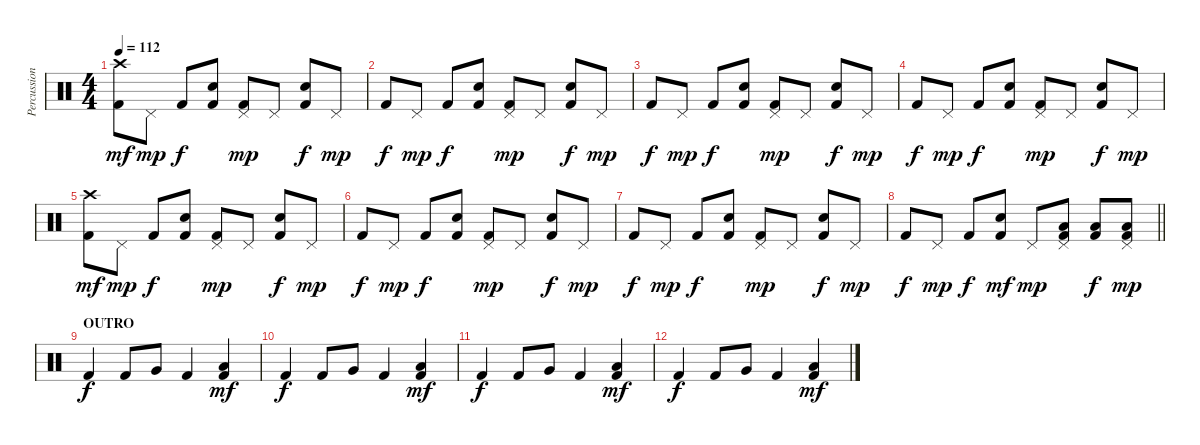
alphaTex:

\track ("Percussion" "Percussion") {instrument percussion}
\staff {score}
\articulation defaults
\ts (4 4)
\tempo 112
\clef neutral
\ks c
("Kick (hit) 2" "Crash high (hit)").8{dy mf} "Pedal Hi-Hat (hit)".8{dy mp} "Kick (hit) 2".8{dy f} ("Kick (hit) 2" "Snare (hit) 2").8 ("Kick (hit) 2" "Pedal Hi-Hat (hit)").8{dy mp} "Pedal Hi-Hat (hit)".8 ("Kick (hit) 2" "Snare (hit) 2").8{dy f} "Pedal Hi-Hat (hit)".8{dy mp} |
"Kick (hit) 2".8{dy f} "Pedal Hi-Hat (hit)".8{dy mp} "Kick (hit) 2".8{dy f} ("Kick (hit) 2" "Snare (hit) 2").8 ("Kick (hit) 2" "Pedal Hi-Hat (hit)").8{dy mp} "Pedal Hi-Hat (hit)".8 ("Kick (hit) 2" "Snare (hit) 2").8{dy f} "Pedal Hi-Hat (hit)".8{dy mp} |
"Kick (hit) 2".8{dy f} "Pedal Hi-Hat (hit)".8{dy mp} "Kick (hit) 2".8{dy f} ("Kick (hit) 2" "Snare (hit) 2").8 ("Kick (hit) 2" "Pedal Hi-Hat (hit)").8{dy mp} "Pedal Hi-Hat (hit)".8 ("Kick (hit) 2" "Snare (hit) 2").8{dy f} "Pedal Hi-Hat (hit)".8{dy mp} |
"Kick (hit) 2".8{dy f} "Pedal Hi-Hat (hit)".8{dy mp} "Kick (hit) 2".8{dy f} ("Kick (hit) 2" "Snare (hit) 2").8 ("Kick (hit) 2" "Pedal Hi-Hat (hit)").8{dy mp} "Pedal Hi-Hat (hit)".8 ("Kick (hit) 2" "Snare (hit) 2").8{dy f} "Pedal Hi-Hat (hit)".8{dy mp} |
("Kick (hit) 2" "Crash high (hit)").8{dy mf} "Pedal Hi-Hat (hit)".8{dy mp} "Kick (hit) 2".8{dy f} ("Kick (hit) 2" "Snare (hit) 2").8 ("Kick (hit) 2" "Pedal Hi-Hat (hit)").8{dy mp} "Pedal Hi-Hat (hit)".8 ("Kick (hit) 2" "Snare (hit) 2").8{dy f} "Pedal Hi-Hat (hit)".8{dy mp} |
"Kick (hit) 2".8{dy f} "Pedal Hi-Hat (hit)".8{dy mp} "Kick (hit) 2".8{dy f} ("Kick (hit) 2" "Snare (hit) 2").8 ("Kick (hit) 2" "Pedal Hi-Hat (hit)").8{dy mp} "Pedal Hi-Hat (hit)".8 ("Kick (hit) 2" "Snare (hit) 2").8{dy f} "Pedal Hi-Hat (hit)".8{dy mp} |
"Kick (hit) 2".8{dy f} "Pedal Hi-Hat (hit)".8{dy mp} "Kick (hit) 2".8{dy f} ("Kick (hit) 2" "Snare (hit) 2").8 ("Kick (hit) 2" "Pedal Hi-Hat (hit)").8{dy mp} "Pedal Hi-Hat (hit)".8 ("Kick (hit) 2" "Snare (hit) 2").8{dy f} "Pedal Hi-Hat (hit)".8{dy mp} |
\barLineRight lightlight "Kick (hit) 2".8{dy f} "Pedal Hi-Hat (hit)".8{dy mp} "Kick (hit) 2".8{dy f}
("Kick (hit) 2" "Snare (hit) 2").8{dy mf} "Pedal Hi-Hat (hit)".8{dy mp} ("Kick (hit) 2" "Low Floor Tom (hit)" "Pedal Hi-Hat (hit)").8 ("Kick (hit) 2" "Low Floor Tom (hit)").8{dy f} ("Kick (hit) 2" "Low Floor Tom (hit)" "Pedal Hi-Hat (hit)").8{dy mp} |
\section ("" "OUTRO")
"Kick (hit) 2".4{dy f} "Kick (hit) 2".8 "Very Low Tom (hit)".8 "Kick (hit) 2".4 ("Kick (hit) 2" "Low Floor Tom (hit)").4{dy mf} |
"Kick (hit) 2".4{dy f} "Kick (hit) 2".8 "Very Low Tom (hit)".8 "Kick (hit) 2".4 ("Kick (hit) 2" "Low Floor Tom (hit)").4{dy mf} |
"Kick (hit) 2".4{dy f} "Kick (hit) 2".8 "Very Low Tom (hit)".8 "Kick (hit) 2".4 ("Kick (hit) 2" "Low Floor Tom (hit)").4{dy mf} |
"Kick (hit) 2".4{dy f} "Kick (hit) 2".8 "Very Low Tom (hit)".8 "Kick (hit) 2".4 ("Kick (hit) 2" "Low Floor Tom (hit)").4{dy mf}
